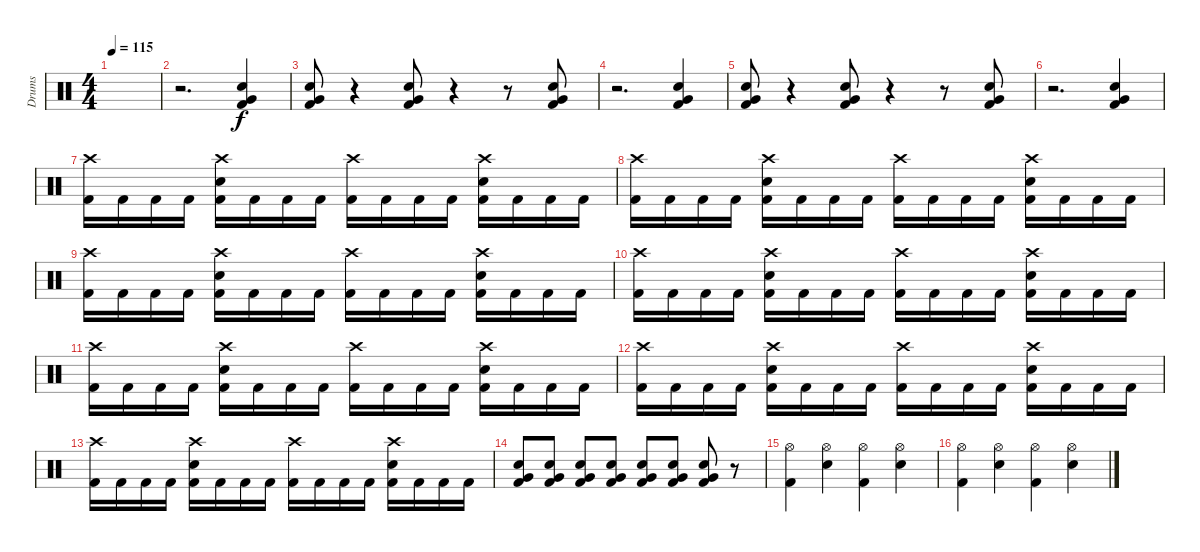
\track ("Drums" "Drums") {instrument percussion}
\staff {score}
\articulation defaults
\ts (4 4)
\tempo 115
\clef neutral
\ks c
|
r.2{d} ("Very Low Tom (hit)" "Snare (hit) 2" "Kick (hit) 2").4 |
("Very Low Tom (hit)" "Snare (hit) 2" "Kick (hit) 2").8 r.4 ("Very Low Tom (hit)" "Snare (hit) 2" "Kick (hit) 2").8 r.4 r.8 ("Very Low Tom (hit)" "Snare (hit) 2" "Kick (hit) 2").8 |
r.2{d} ("Very Low Tom (hit)" "Snare (hit) 2" "Kick (hit) 2").4 |
("Very Low Tom (hit)" "Snare (hit) 2" "Kick (hit) 2").8 r.4 ("Very Low Tom (hit)" "Snare (hit) 2" "Kick (hit) 2").8 r.4 r.8 ("Very Low Tom (hit)" "Snare (hit) 2" "Kick (hit) 2").8 |
r.2{d} ("Very Low Tom (hit)" "Snare (hit) 2" "Kick (hit) 2").4 |
("Crash high (hit)" "Kick (hit) 2").16 "Kick (hit) 2".16 "Kick (hit) 2".16 "Kick (hit) 2".16 ("Crash high (hit)" "Snare (hit) 2" "Kick (hit) 2").16 "Kick (hit) 2".16 "Kick (hit) 2".16 "Kick (hit) 2".16 ("Crash high (hit)" "Kick (hit) 2").16 "Kick (hit) 2".16 "Kick (hit) 2".16 "Kick (hit) 2".16 ("Crash high (hit)" "Snare (hit) 2" "Kick (hit) 2").16 "Kick (hit) 2".16 "Kick (hit) 2".16 "Kick (hit) 2".16 |
("Crash high (hit)" "Kick (hit) 2").16 "Kick (hit) 2".16 "Kick (hit) 2".16 "Kick (hit) 2".16 ("Crash high (hit)" "Snare (hit) 2" "Kick (hit) 2").16 "Kick (hit) 2".16 "Kick (hit) 2".16 "Kick (hit) 2".16 ("Crash high (hit)" "Kick (hit) 2").16 "Kick (hit) 2".16 "Kick (hit) 2".16 "Kick (hit) 2".16 ("Crash high (hit)" "Snare (hit) 2" "Kick (hit) 2").16 "Kick (hit) 2".16 "Kick (hit) 2".16 "Kick (hit) 2".16 |
("Crash high (hit)" "Kick (hit) 2").16 "Kick (hit) 2".16 "Kick (hit) 2".16 "Kick (hit) 2".16 ("Crash high (hit)" "Snare (hit) 2" "Kick (hit) 2").16 "Kick (hit) 2".16 "Kick (hit) 2".16 "Kick (hit) 2".16 ("Crash high (hit)" "Kick (hit) 2").16 "Kick (hit) 2".16 "Kick (hit) 2".16 "Kick (hit) 2".16 ("Crash high (hit)" "Snare (hit) 2" "Kick (hit) 2").16 "Kick (hit) 2".16 "Kick (hit) 2".16 "Kick (hit) 2".16 |
("Crash high (hit)" "Kick (hit) 2").16 "Kick (hit) 2".16 "Kick (hit) 2".16 "Kick (hit) 2".16 ("Crash high (hit)" "Snare (hit) 2" "Kick (hit) 2").16 "Kick (hit) 2".16 "Kick (hit) 2".16 "Kick (hit) 2".16 ("Crash high (hit)" "Kick (hit) 2").16 "Kick (hit) 2".16 "Kick (hit) 2".16 "Kick (hit) 2".16 ("Crash high (hit)" "Snare (hit) 2" "Kick (hit) 2").16 "Kick (hit) 2".16 "Kick (hit) 2".16 "Kick (hit) 2".16 |
("Crash high (hit)" "Kick (hit) 2").16 "Kick (hit) 2".16 "Kick (hit) 2".16 "Kick (hit) 2".16 ("Crash high (hit)" "Snare (hit) 2" "Kick (hit) 2").16 "Kick (hit) 2".16 "Kick (hit) 2".16 "Kick (hit) 2".16 ("Crash high (hit)" "Kick (hit) 2").16 "Kick (hit) 2".16 "Kick (hit) 2".16 "Kick (hit) 2".16 ("Crash high (hit)" "Snare (hit) 2" "Kick (hit) 2").16 "Kick (hit) 2".16 "Kick (hit) 2".16 "Kick (hit) 2".16 |
("Crash high (hit)" "Kick (hit) 2").16 "Kick (hit) 2".16 "Kick (hit) 2".16 "Kick (hit) 2".16 ("Crash high (hit)" "Snare (hit) 2" "Kick (hit) 2").16 "Kick (hit) 2".16 "Kick (hit) 2".16 "Kick (hit) 2".16 ("Crash high (hit)" "Kick (hit) 2").16 "Kick (hit) 2".16 "Kick (hit) 2".16 "Kick (hit) 2".16 ("Crash high (hit)" "Snare (hit) 2" "Kick (hit) 2").16 "Kick (hit) 2".16 "Kick (hit) 2".16 "Kick (hit) 2".16 |
("Crash high (hit)" "Kick (hit) 2").16 "Kick (hit) 2".16 "Kick (hit) 2".16 "Kick (hit) 2".16 ("Crash high (hit)" "Snare (hit) 2" "Kick (hit) 2").16 "Kick (hit) 2".16 "Kick (hit) 2".16 "Kick (hit) 2".16 ("Crash high (hit)" "Kick (hit) 2").16 "Kick (hit) 2".16 "Kick (hit) 2".16 "Kick (hit) 2".16 ("Crash high (hit)" "Snare (hit) 2" "Kick (hit) 2").16 "Kick (hit) 2".16 "Kick (hit) 2".16 "Kick (hit) 2".16 |
("Very Low Tom (hit)" "Snare (hit) 2" "Kick (hit) 2").8 ("Very Low Tom (hit)" "Snare (hit) 2" "Kick (hit) 2").8 ("Very Low Tom (hit)" "Snare (hit) 2" "Kick (hit) 2").8 ("Very Low Tom (hit)" "Snare (hit) 2" "Kick (hit) 2").8 ("Very Low Tom (hit)" "Snare (hit) 2" "Kick (hit) 2").8 ("Very Low Tom (hit)" "Snare (hit) 2" "Kick (hit) 2").8 ("Very Low Tom (hit)" "Snare (hit) 2" "Kick (hit) 2").8 r.8 |
("Hi-Hat (open)" "Kick (hit) 2").4 ("Hi-Hat (open)" "Snare (hit) 2").4 ("Hi-Hat (open)" "Kick (hit) 2").4 ("Hi-Hat (open)" "Snare (hit) 2").4 |
("Hi-Hat (open)" "Kick (hit) 2").4 ("Hi-Hat (open)" "Snare (hit) 2").4 ("Hi-Hat (open)" "Kick (hit) 2").4 ("Hi-Hat (open)" "Snare (hit) 2").4
